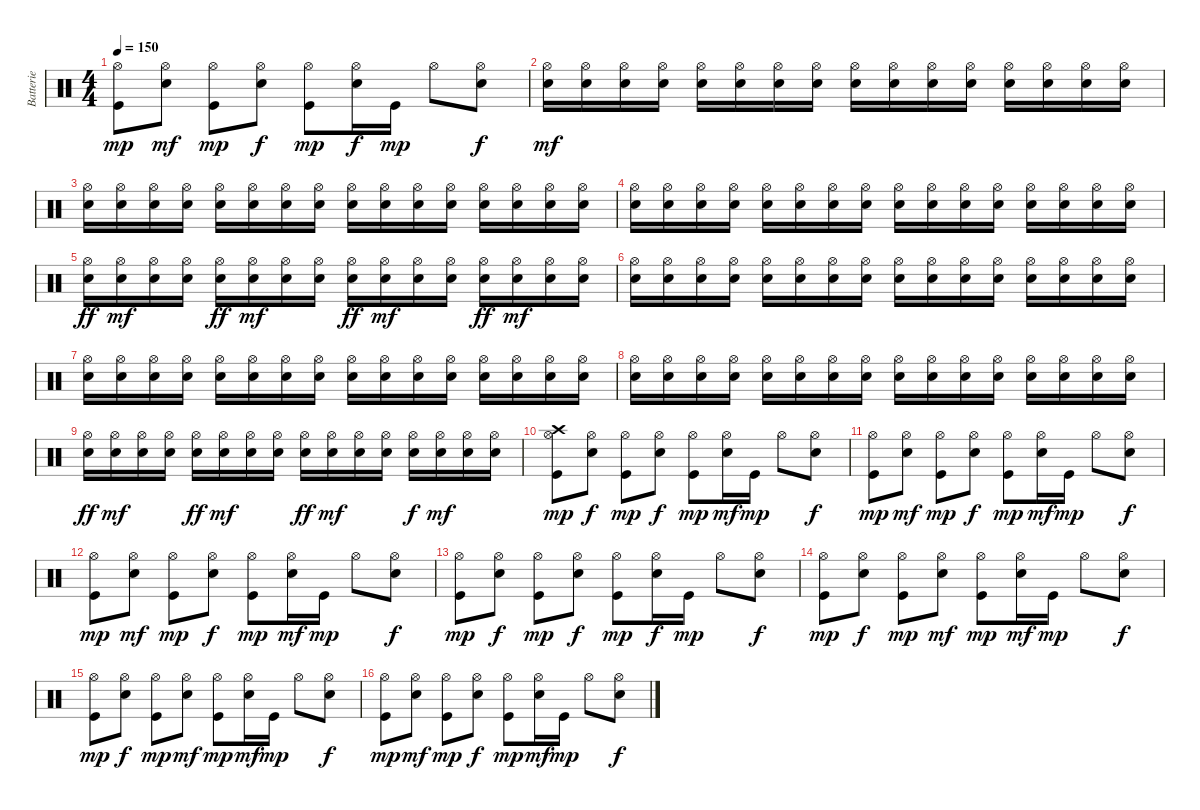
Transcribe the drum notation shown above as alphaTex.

\track ("Batterie" "Batterie") {instrument percussion}
\staff {score}
\articulation defaults
\ts (4 4)
\tempo 150
\clef neutral
\ks c
("Hi-Hat (open)" "Kick (hit)").8{dy mp} ("Hi-Hat (open)" "Snare (hit) 2").8{dy mf} ("Hi-Hat (open)" "Kick (hit)").8{dy mp} ("Hi-Hat (open)" "Snare (hit) 2").8{dy f} ("Hi-Hat (open)" "Kick (hit)").8{dy mp} ("Hi-Hat (open)" "Snare (hit) 2").16{dy f} "Kick (hit)".16{dy mp} "Hi-Hat (open)".8 ("Hi-Hat (open)" "Snare (hit) 2").8{dy f} |
("Hi-Hat (open)" "Snare (hit) 2").16{dy mf volume 6} ("Hi-Hat (open)" "Snare (hit) 2").16 ("Hi-Hat (open)" "Snare (hit) 2").16 ("Hi-Hat (open)" "Snare (hit) 2").16 ("Hi-Hat (open)" "Snare (hit) 2").16 ("Hi-Hat (open)" "Snare (hit) 2").16{volume 8} ("Hi-Hat (open)" "Snare (hit) 2").16 ("Hi-Hat (open)" "Snare (hit) 2").16 ("Hi-Hat (open)" "Snare (hit) 2").16{volume 9} ("Hi-Hat (open)" "Snare (hit) 2").16 ("Hi-Hat (open)" "Snare (hit) 2").16 ("Hi-Hat (open)" "Snare (hit) 2").16 ("Hi-Hat (open)" "Snare (hit) 2").16{volume 8} ("Hi-Hat (open)" "Snare (hit) 2").16{volume 6} ("Hi-Hat (open)" "Snare (hit) 2").16 ("Hi-Hat (open)" "Snare (hit) 2").16 |
("Hi-Hat (open)" "Snare (hit) 2").16{volume 8} ("Hi-Hat (open)" "Snare (hit) 2").16 ("Hi-Hat (open)" "Snare (hit) 2").16 ("Hi-Hat (open)" "Snare (hit) 2").16 ("Hi-Hat (open)" "Snare (hit) 2").16 ("Hi-Hat (open)" "Snare (hit) 2").16{volume 9} ("Hi-Hat (open)" "Snare (hit) 2").16 ("Hi-Hat (open)" "Snare (hit) 2").16 ("Hi-Hat (open)" "Snare (hit) 2").16{volume 10} ("Hi-Hat (open)" "Snare (hit) 2").16 ("Hi-Hat (open)" "Snare (hit) 2").16 ("Hi-Hat (open)" "Snare (hit) 2").16 ("Hi-Hat (open)" "Snare (hit) 2").16{volume 9} ("Hi-Hat (open)" "Snare (hit) 2").16{volume 8} ("Hi-Hat (open)" "Snare (hit) 2").16 ("Hi-Hat (open)" "Snare (hit) 2").16 |
("Hi-Hat (open)" "Snare (hit) 2").16 ("Hi-Hat (open)" "Snare (hit) 2").16 ("Hi-Hat (open)" "Snare (hit) 2").16 ("Hi-Hat (open)" "Snare (hit) 2").16{volume 6} ("Hi-Hat (open)" "Snare (hit) 2").16 ("Hi-Hat (open)" "Snare (hit) 2").16{volume 8} ("Hi-Hat (open)" "Snare (hit) 2").16 ("Hi-Hat (open)" "Snare (hit) 2").16 ("Hi-Hat (open)" "Snare (hit) 2").16{volume 9} ("Hi-Hat (open)" "Snare (hit) 2").16 ("Hi-Hat (open)" "Snare (hit) 2").16 ("Hi-Hat (open)" "Snare (hit) 2").16 ("Hi-Hat (open)" "Snare (hit) 2").16{volume 8} ("Hi-Hat (open)" "Snare (hit) 2").16{volume 6} ("Hi-Hat (open)" "Snare (hit) 2").16 ("Hi-Hat (open)" "Snare (hit) 2").16 |
("Hi-Hat (open)" "Snare (hit) 2").16{dy ff volume 8} ("Hi-Hat (open)" "Snare (hit) 2").16{dy mf} ("Hi-Hat (open)" "Snare (hit) 2").16 ("Hi-Hat (open)" "Snare (hit) 2").16 ("Hi-Hat (open)" "Snare (hit) 2").16{dy ff volume 9} ("Hi-Hat (open)" "Snare (hit) 2").16{dy mf} ("Hi-Hat (open)" "Snare (hit) 2").16 ("Hi-Hat (open)" "Snare (hit) 2").16{volume 10} ("Hi-Hat (open)" "Snare (hit) 2").16{dy ff} ("Hi-Hat (open)" "Snare (hit) 2").16{dy mf} ("Hi-Hat (open)" "Snare (hit) 2").16 ("Hi-Hat (open)" "Snare (hit) 2").16{volume 12} ("Hi-Hat (open)" "Snare (hit) 2").16{dy ff} ("Hi-Hat (open)" "Snare (hit) 2").16{dy mf volume 14} ("Hi-Hat (open)" "Snare (hit) 2").16 ("Hi-Hat (open)" "Snare (hit) 2").16 |
("Hi-Hat (open)" "Snare (hit) 2").16{volume 6} ("Hi-Hat (open)" "Snare (hit) 2").16 ("Hi-Hat (open)" "Snare (hit) 2").16 ("Hi-Hat (open)" "Snare (hit) 2").16 ("Hi-Hat (open)" "Snare (hit) 2").16 ("Hi-Hat (open)" "Snare (hit) 2").16{volume 8} ("Hi-Hat (open)" "Snare (hit) 2").16 ("Hi-Hat (open)" "Snare (hit) 2").16 ("Hi-Hat (open)" "Snare (hit) 2").16{volume 9} ("Hi-Hat (open)" "Snare (hit) 2").16 ("Hi-Hat (open)" "Snare (hit) 2").16 ("Hi-Hat (open)" "Snare (hit) 2").16 ("Hi-Hat (open)" "Snare (hit) 2").16{volume 8} ("Hi-Hat (open)" "Snare (hit) 2").16{volume 6} ("Hi-Hat (open)" "Snare (hit) 2").16 ("Hi-Hat (open)" "Snare (hit) 2").16 |
("Hi-Hat (open)" "Snare (hit) 2").16{volume 8} ("Hi-Hat (open)" "Snare (hit) 2").16 ("Hi-Hat (open)" "Snare (hit) 2").16 ("Hi-Hat (open)" "Snare (hit) 2").16 ("Hi-Hat (open)" "Snare (hit) 2").16 ("Hi-Hat (open)" "Snare (hit) 2").16{volume 9} ("Hi-Hat (open)" "Snare (hit) 2").16 ("Hi-Hat (open)" "Snare (hit) 2").16 ("Hi-Hat (open)" "Snare (hit) 2").16{volume 10} ("Hi-Hat (open)" "Snare (hit) 2").16 ("Hi-Hat (open)" "Snare (hit) 2").16 ("Hi-Hat (open)" "Snare (hit) 2").16 ("Hi-Hat (open)" "Snare (hit) 2").16{volume 9} ("Hi-Hat (open)" "Snare (hit) 2").16{volume 8} ("Hi-Hat (open)" "Snare (hit) 2").16 ("Hi-Hat (open)" "Snare (hit) 2").16 |
("Hi-Hat (open)" "Snare (hit) 2").16 ("Hi-Hat (open)" "Snare (hit) 2").16 ("Hi-Hat (open)" "Snare (hit) 2").16 ("Hi-Hat (open)" "Snare (hit) 2").16{volume 6} ("Hi-Hat (open)" "Snare (hit) 2").16 ("Hi-Hat (open)" "Snare (hit) 2").16{volume 8} ("Hi-Hat (open)" "Snare (hit) 2").16 ("Hi-Hat (open)" "Snare (hit) 2").16 ("Hi-Hat (open)" "Snare (hit) 2").16{volume 9} ("Hi-Hat (open)" "Snare (hit) 2").16 ("Hi-Hat (open)" "Snare (hit) 2").16 ("Hi-Hat (open)" "Snare (hit) 2").16 ("Hi-Hat (open)" "Snare (hit) 2").16{volume 8} ("Hi-Hat (open)" "Snare (hit) 2").16{volume 6} ("Hi-Hat (open)" "Snare (hit) 2").16 ("Hi-Hat (open)" "Snare (hit) 2").16 |
("Hi-Hat (open)" "Snare (hit) 2").16{dy ff volume 8} ("Hi-Hat (open)" "Snare (hit) 2").16{dy mf} ("Hi-Hat (open)" "Snare (hit) 2").16 ("Hi-Hat (open)" "Snare (hit) 2").16 ("Hi-Hat (open)" "Snare (hit) 2").16{dy ff volume 9} ("Hi-Hat (open)" "Snare (hit) 2").16{dy mf} ("Hi-Hat (open)" "Snare (hit) 2").16 ("Hi-Hat (open)" "Snare (hit) 2").16{volume 10} ("Hi-Hat (open)" "Snare (hit) 2").16{dy ff} ("Hi-Hat (open)" "Snare (hit) 2").16{dy mf} ("Hi-Hat (open)" "Snare (hit) 2").16 ("Hi-Hat (open)" "Snare (hit) 2").16{volume 12} ("Hi-Hat (open)" "Snare (hit) 2").16{dy f} ("Hi-Hat (open)" "Snare (hit) 2").16{dy mf volume 14} ("Hi-Hat (open)" "Snare (hit) 2").16 ("Hi-Hat (open)" "Snare (hit) 2").16 |
("Hi-Hat (open)" "Crash high (hit)" "Kick (hit)").8{dy mp} ("Hi-Hat (open)" "Snare (hit) 2").8{dy f} ("Hi-Hat (open)" "Kick (hit)").8{dy mp} ("Hi-Hat (open)" "Snare (hit) 2").8{dy f} ("Hi-Hat (open)" "Kick (hit)").8{dy mp} ("Hi-Hat (open)" "Snare (hit) 2").16{dy mf} "Kick (hit)".16{dy mp} "Hi-Hat (open)".8 ("Hi-Hat (open)" "Snare (hit) 2").8{dy f} |
("Hi-Hat (open)" "Kick (hit)").8{dy mp} ("Hi-Hat (open)" "Snare (hit) 2").8{dy mf} ("Hi-Hat (open)" "Kick (hit)").8{dy mp} ("Hi-Hat (open)" "Snare (hit) 2").8{dy f} ("Hi-Hat (open)" "Kick (hit)").8{dy mp} ("Hi-Hat (open)" "Snare (hit) 2").16{dy mf} "Kick (hit)".16{dy mp} "Hi-Hat (open)".8 ("Hi-Hat (open)" "Snare (hit) 2").8{dy f} |
("Hi-Hat (open)" "Kick (hit)").8{dy mp} ("Hi-Hat (open)" "Snare (hit) 2").8{dy mf} ("Hi-Hat (open)" "Kick (hit)").8{dy mp} ("Hi-Hat (open)" "Snare (hit) 2").8{dy f} ("Hi-Hat (open)" "Kick (hit)").8{dy mp} ("Hi-Hat (open)" "Snare (hit) 2").16{dy mf} "Kick (hit)".16{dy mp} "Hi-Hat (open)".8 ("Hi-Hat (open)" "Snare (hit) 2").8{dy f} |
("Hi-Hat (open)" "Kick (hit)").8{dy mp} ("Hi-Hat (open)" "Snare (hit) 2").8{dy f} ("Hi-Hat (open)" "Kick (hit)").8{dy mp} ("Hi-Hat (open)" "Snare (hit) 2").8{dy f} ("Hi-Hat (open)" "Kick (hit)").8{dy mp} ("Hi-Hat (open)" "Snare (hit) 2").16{dy f} "Kick (hit)".16{dy mp} "Hi-Hat (open)".8 ("Hi-Hat (open)" "Snare (hit) 2").8{dy f} |
("Hi-Hat (open)" "Kick (hit)").8{dy mp} ("Hi-Hat (open)" "Snare (hit) 2").8{dy f} ("Hi-Hat (open)" "Kick (hit)").8{dy mp} ("Hi-Hat (open)" "Snare (hit) 2").8{dy mf} ("Hi-Hat (open)" "Kick (hit)").8{dy mp} ("Hi-Hat (open)" "Snare (hit) 2").16{dy mf} "Kick (hit)".16{dy mp} "Hi-Hat (open)".8 ("Hi-Hat (open)" "Snare (hit) 2").8{dy f} |
("Hi-Hat (open)" "Kick (hit)").8{dy mp} ("Hi-Hat (open)" "Snare (hit) 2").8{dy f} ("Hi-Hat (open)" "Kick (hit)").8{dy mp} ("Hi-Hat (open)" "Snare (hit) 2").8{dy mf} ("Hi-Hat (open)" "Kick (hit)").8{dy mp} ("Hi-Hat (open)" "Snare (hit) 2").16{dy mf} "Kick (hit)".16{dy mp} "Hi-Hat (open)".8 ("Hi-Hat (open)" "Snare (hit) 2").8{dy f} |
("Hi-Hat (open)" "Kick (hit)").8{dy mp} ("Hi-Hat (open)" "Snare (hit) 2").8{dy mf} ("Hi-Hat (open)" "Kick (hit)").8{dy mp} ("Hi-Hat (open)" "Snare (hit) 2").8{dy f} ("Hi-Hat (open)" "Kick (hit)").8{dy mp} ("Hi-Hat (open)" "Snare (hit) 2").16{dy mf} "Kick (hit)".16{dy mp} "Hi-Hat (open)".8 ("Hi-Hat (open)" "Snare (hit) 2").8{dy f}
